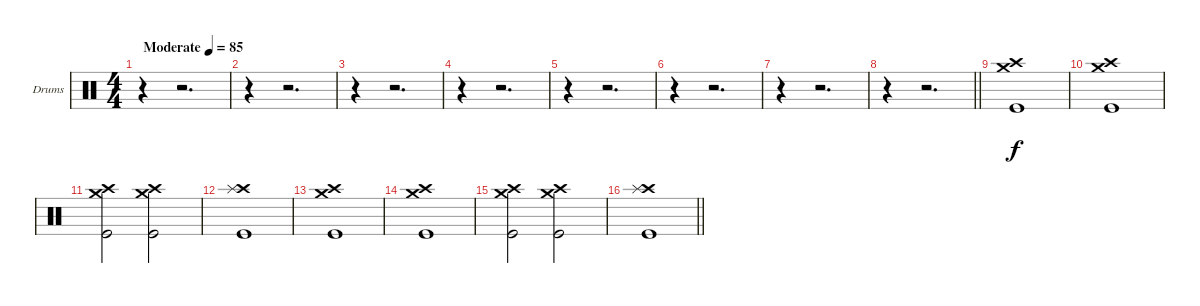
\bracketExtendMode groupsimilarinstruments
\firstSystemTrackNameOrientation horizontal
\otherSystemsTrackNameOrientation horizontal
\track ("Drumkit" "Drums") {instrument percussion}
\staff {score}
\articulation defaults
\ts (4 4)
\beaming (8 2 2 2 2)
\tempo (85 "Moderate")
\clef neutral
\ks c
r.4{dy f} r.2{d} |
r.4 r.2{d} |
r.4 r.2{d} |
r.4 r.2{d} |
r.4 r.2{d} |
r.4 r.2{d} |
r.4 r.2{d} |
\barLineRight lightlight
r.4 r.2{d} |
("Crash high (hit)" "Crash medium (hit)" "Kick (hit)").1 |
("Crash high (hit)" "Crash medium (hit)" "Kick (hit)").1 |
("Crash high (hit)" "Crash medium (hit)" "Kick (hit)").2 ("Crash high (hit)" "Crash medium (hit)" "Kick (hit)").2 |
("Crash high (hit)" "Splash (hit)" "Kick (hit)").1 |
("Crash high (hit)" "Crash medium (hit)" "Kick (hit)").1 |
("Crash high (hit)" "Crash medium (hit)" "Kick (hit)").1 |
("Crash high (hit)" "Crash medium (hit)" "Kick (hit)").2 ("Crash high (hit)" "Crash medium (hit)" "Kick (hit)").2 |
\barLineRight lightlight
("Crash high (hit)" "Splash (hit)" "Kick (hit)").1
